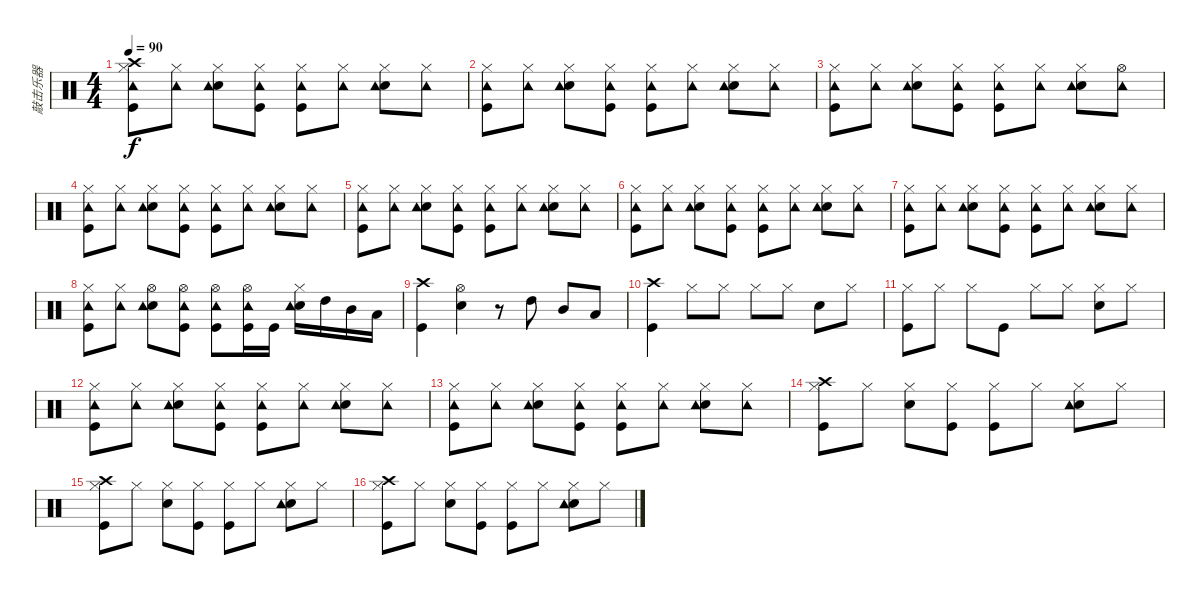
\track ("敲击乐器" "敲击乐器") {instrument percussion}
\staff {score}
\articulation defaults
\ts (4 4)
\tempo 90
\clef neutral
\ks c
("Hi-Hat (closed)" "Crash high (hit)" "Kick (hit)" "Tambourine (hit)").8{dy f} ("Hi-Hat (closed)" "Tambourine (hit)").8 ("Hi-Hat (closed)" "Snare (hit) 2" "Tambourine (hit)").8 ("Hi-Hat (closed)" "Kick (hit)" "Tambourine (hit)").8 ("Hi-Hat (closed)" "Kick (hit)" "Tambourine (hit)").8 ("Hi-Hat (closed)" "Tambourine (hit)").8 ("Hi-Hat (closed)" "Snare (hit) 2" "Tambourine (hit)").8 ("Hi-Hat (closed)" "Tambourine (hit)").8 |
("Hi-Hat (closed)" "Kick (hit)" "Tambourine (hit)").8 ("Hi-Hat (closed)" "Tambourine (hit)").8 ("Hi-Hat (closed)" "Snare (hit) 2" "Tambourine (hit)").8 ("Hi-Hat (closed)" "Kick (hit)" "Tambourine (hit)").8 ("Hi-Hat (closed)" "Kick (hit)" "Tambourine (hit)").8 ("Hi-Hat (closed)" "Tambourine (hit)").8 ("Hi-Hat (closed)" "Snare (hit) 2" "Tambourine (hit)").8 ("Hi-Hat (closed)" "Tambourine (hit)").8 |
("Hi-Hat (closed)" "Kick (hit)" "Tambourine (hit)").8 ("Hi-Hat (closed)" "Tambourine (hit)").8 ("Hi-Hat (closed)" "Snare (hit) 2" "Tambourine (hit)").8 ("Hi-Hat (closed)" "Kick (hit)" "Tambourine (hit)").8 ("Hi-Hat (closed)" "Kick (hit)" "Tambourine (hit)").8 ("Hi-Hat (closed)" "Tambourine (hit)").8 ("Hi-Hat (closed)" "Snare (hit) 2" "Tambourine (hit)").8 ("Hi-Hat (open)" "Tambourine (hit)").8 |
("Hi-Hat (closed)" "Kick (hit)" "Tambourine (hit)").8 ("Hi-Hat (closed)" "Tambourine (hit)").8 ("Hi-Hat (closed)" "Snare (hit) 2" "Tambourine (hit)").8 ("Hi-Hat (closed)" "Kick (hit)" "Tambourine (hit)").8 ("Hi-Hat (closed)" "Kick (hit)" "Tambourine (hit)").8 ("Hi-Hat (closed)" "Tambourine (hit)").8 ("Hi-Hat (closed)" "Snare (hit) 2" "Tambourine (hit)").8 ("Hi-Hat (closed)" "Tambourine (hit)").8 |
("Hi-Hat (closed)" "Kick (hit)" "Tambourine (hit)").8 ("Hi-Hat (closed)" "Tambourine (hit)").8 ("Hi-Hat (closed)" "Snare (hit) 2" "Tambourine (hit)").8 ("Hi-Hat (closed)" "Kick (hit)" "Tambourine (hit)").8 ("Hi-Hat (closed)" "Kick (hit)" "Tambourine (hit)").8 ("Hi-Hat (closed)" "Tambourine (hit)").8 ("Hi-Hat (closed)" "Snare (hit) 2" "Tambourine (hit)").8 ("Hi-Hat (closed)" "Tambourine (hit)").8 |
("Hi-Hat (closed)" "Kick (hit)" "Tambourine (hit)").8 ("Hi-Hat (closed)" "Tambourine (hit)").8 ("Hi-Hat (closed)" "Snare (hit) 2" "Tambourine (hit)").8 ("Hi-Hat (closed)" "Kick (hit)" "Tambourine (hit)").8 ("Hi-Hat (closed)" "Kick (hit)" "Tambourine (hit)").8 ("Hi-Hat (closed)" "Tambourine (hit)").8 ("Hi-Hat (closed)" "Snare (hit) 2" "Tambourine (hit)").8 ("Hi-Hat (closed)" "Tambourine (hit)").8 |
("Hi-Hat (closed)" "Kick (hit)" "Tambourine (hit)").8 ("Hi-Hat (closed)" "Tambourine (hit)").8 ("Hi-Hat (closed)" "Snare (hit) 2" "Tambourine (hit)").8 ("Hi-Hat (closed)" "Kick (hit)" "Tambourine (hit)").8 ("Hi-Hat (closed)" "Kick (hit)" "Tambourine (hit)").8 ("Hi-Hat (closed)" "Tambourine (hit)").8 ("Hi-Hat (closed)" "Snare (hit) 2" "Tambourine (hit)").8 ("Hi-Hat (closed)" "Tambourine (hit)").8 |
("Hi-Hat (closed)" "Kick (hit)" "Tambourine (hit)").8 ("Hi-Hat (closed)" "Tambourine (hit)").8 ("Hi-Hat (open)" "Snare (hit) 2" "Tambourine (hit)").8 ("Hi-Hat (open)" "Kick (hit)" "Tambourine (hit)").8 ("Hi-Hat (open)" "Kick (hit)" "Tambourine (hit)").8 ("Hi-Hat (open)" "Kick (hit)" "Tambourine (hit)").16 "Kick (hit)".16 ("Hi-Hat (closed)" "Snare (hit) 2" "Tambourine (hit)").16 "High Tom (hit)".16 "Mid Tom (hit)".16 "Low Tom (hit)".16 |
("Crash high (hit)" "Kick (hit)").4 ("Hi-Hat (open)" "Snare (hit) 2").4 r.8 "High Tom (hit)".8 "Mid Tom (hit)".8 "Low Tom (hit)".8 |
("Crash high (hit)" "Kick (hit)").4 "Hi-Hat (closed)".8 "Hi-Hat (closed)".8 "Hi-Hat (closed)".8 "Hi-Hat (closed)".8 "Snare (hit) 2".8 "Hi-Hat (closed)".8 |
("Hi-Hat (closed)" "Kick (hit)").8 "Hi-Hat (closed)".8 "Hi-Hat (closed)".8 "Kick (hit)".8 "Hi-Hat (closed)".8 "Hi-Hat (closed)".8 ("Hi-Hat (closed)" "Snare (hit) 2").8 "Hi-Hat (closed)".8 |
("Hi-Hat (closed)" "Kick (hit)" "Tambourine (hit)").8 ("Hi-Hat (closed)" "Tambourine (hit)").8 ("Hi-Hat (closed)" "Snare (hit) 2" "Tambourine (hit)").8 ("Hi-Hat (closed)" "Kick (hit)" "Tambourine (hit)").8 ("Hi-Hat (closed)" "Kick (hit)" "Tambourine (hit)").8 ("Hi-Hat (closed)" "Tambourine (hit)").8 ("Hi-Hat (closed)" "Snare (hit) 2" "Tambourine (hit)").8 ("Hi-Hat (closed)" "Tambourine (hit)").8 |
("Hi-Hat (closed)" "Kick (hit)" "Tambourine (hit)").8 ("Hi-Hat (closed)" "Tambourine (hit)").8 ("Hi-Hat (closed)" "Snare (hit) 2" "Tambourine (hit)").8 ("Hi-Hat (closed)" "Kick (hit)" "Tambourine (hit)").8 ("Hi-Hat (closed)" "Kick (hit)" "Tambourine (hit)").8 ("Hi-Hat (closed)" "Tambourine (hit)").8 ("Hi-Hat (closed)" "Snare (hit) 2" "Tambourine (hit)").8 ("Hi-Hat (closed)" "Tambourine (hit)").8 |
("Hi-Hat (closed)" "Kick (hit)" "Crash high (hit)").8 "Hi-Hat (closed)".8 ("Hi-Hat (closed)" "Snare (hit) 2").8 ("Hi-Hat (closed)" "Kick (hit)").8 ("Hi-Hat (closed)" "Kick (hit)").8 "Hi-Hat (closed)".8 ("Hi-Hat (closed)" "Snare (hit) 2" "Tambourine (hit)").8 "Hi-Hat (closed)".8 |
("Hi-Hat (closed)" "Kick (hit)" "Crash high (hit)").8 "Hi-Hat (closed)".8 ("Hi-Hat (closed)" "Snare (hit) 2").8 ("Hi-Hat (closed)" "Kick (hit)").8 ("Hi-Hat (closed)" "Kick (hit)").8 "Hi-Hat (closed)".8 ("Hi-Hat (closed)" "Snare (hit) 2" "Tambourine (hit)").8 "Hi-Hat (closed)".8 |
("Hi-Hat (closed)" "Kick (hit)" "Crash high (hit)").8 "Hi-Hat (closed)".8 ("Hi-Hat (closed)" "Snare (hit) 2").8 ("Hi-Hat (closed)" "Kick (hit)").8 ("Hi-Hat (closed)" "Kick (hit)").8 "Hi-Hat (closed)".8 ("Hi-Hat (closed)" "Snare (hit) 2" "Tambourine (hit)").8 "Hi-Hat (closed)".8
